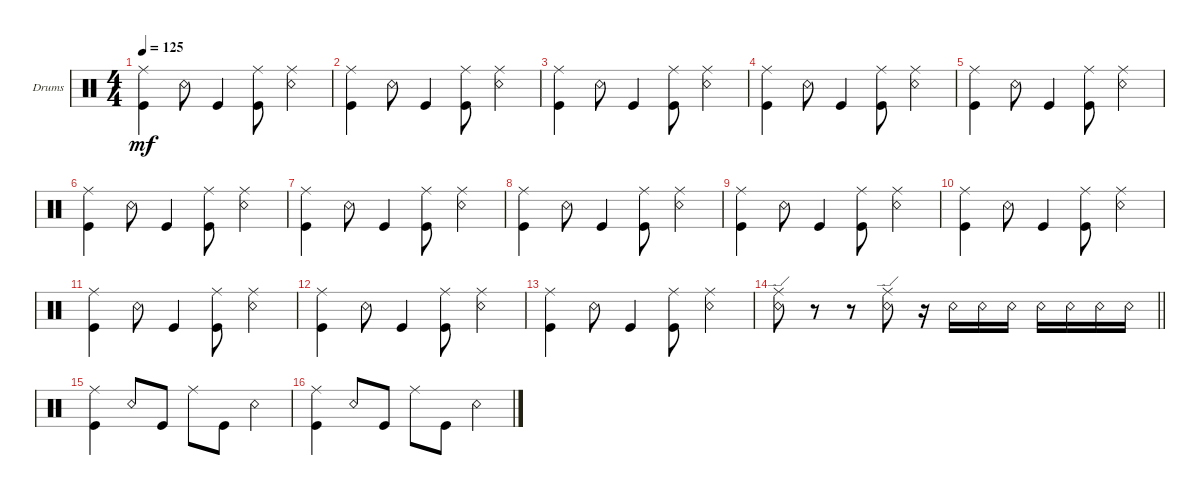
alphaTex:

\defaultSystemsLayout 4
\bracketExtendMode groupsimilarinstruments
\firstSystemTrackNameOrientation horizontal
\otherSystemsTrackNameOrientation horizontal
\track ("Drumkit" "Drums") {instrument percussion}
\staff {score}
\articulation defaults
\ts (4 4)
\tempo 125
\clef neutral
\ks c
("Kick (hit)" "Ride (middle)").4{dy mf} "Snare (rim shot)".8 "Kick (hit)".4 ("Kick (hit)" "Ride (middle)").8 ("Snare (rim shot)" "Ride (middle)").4 |
("Kick (hit)" "Ride (middle)").4 "Snare (rim shot)".8 "Kick (hit)".4 ("Kick (hit)" "Ride (middle)").8 ("Snare (rim shot)" "Ride (middle)").4 |
("Kick (hit)" "Ride (middle)").4 "Snare (rim shot)".8 "Kick (hit)".4 ("Kick (hit)" "Ride (middle)").8 ("Snare (rim shot)" "Ride (middle)").4 |
("Kick (hit)" "Ride (middle)").4 "Snare (rim shot)".8 "Kick (hit)".4 ("Kick (hit)" "Ride (middle)").8 ("Snare (rim shot)" "Ride (middle)").4 |
("Kick (hit)" "Ride (middle)").4 "Snare (rim shot)".8 "Kick (hit)".4 ("Kick (hit)" "Ride (middle)").8 ("Snare (rim shot)" "Ride (middle)").4 |
("Kick (hit)" "Ride (middle)").4 "Snare (rim shot)".8 "Kick (hit)".4 ("Kick (hit)" "Ride (middle)").8 ("Snare (rim shot)" "Ride (middle)").4 |
("Kick (hit)" "Ride (middle)").4 "Snare (rim shot)".8 "Kick (hit)".4 ("Kick (hit)" "Ride (middle)").8 ("Snare (rim shot)" "Ride (middle)").4 |
("Kick (hit)" "Ride (middle)").4 "Snare (rim shot)".8 "Kick (hit)".4 ("Kick (hit)" "Ride (middle)").8 ("Snare (rim shot)" "Ride (middle)").4 |
("Kick (hit)" "Ride (middle)").4 "Snare (rim shot)".8 "Kick (hit)".4 ("Kick (hit)" "Ride (middle)").8 ("Snare (rim shot)" "Ride (middle)").4 |
("Kick (hit)" "Ride (middle)").4 "Snare (rim shot)".8 "Kick (hit)".4 ("Kick (hit)" "Ride (middle)").8 ("Snare (rim shot)" "Ride (middle)").4 |
("Kick (hit)" "Ride (middle)").4 "Snare (rim shot)".8 "Kick (hit)".4 ("Kick (hit)" "Ride (middle)").8 ("Snare (rim shot)" "Ride (middle)").4 |
("Kick (hit)" "Ride (middle)").4 "Snare (rim shot)".8 "Kick (hit)".4 ("Kick (hit)" "Ride (middle)").8 ("Snare (rim shot)" "Ride (middle)").4 |
("Kick (hit)" "Ride (middle)").4 "Snare (rim shot)".8 "Kick (hit)".4 ("Kick (hit)" "Ride (middle)").8 ("Snare (rim shot)" "Ride (middle)").4 |
\barLineRight lightlight
("Snare (rim shot)" "Ride (edge)").8 r.8 r.8 ("Snare (rim shot)" "Ride (edge)").8 r.16 "Snare (rim shot)".16 "Snare (rim shot)".16 "Snare (rim shot)".16 "Snare (rim shot)".16 "Snare (rim shot)".16 "Snare (rim shot)".16 "Snare (rim shot)".16 |
("Kick (hit)" "Ride (middle)").4 "Snare (rim shot)".8 "Kick (hit)".8 "Ride (middle)".8 "Kick (hit)".8 "Snare (rim shot)".4 |
("Kick (hit)" "Ride (middle)").4 "Snare (rim shot)".8 "Kick (hit)".8 "Ride (middle)".8 "Kick (hit)".8 "Snare (rim shot)".4
